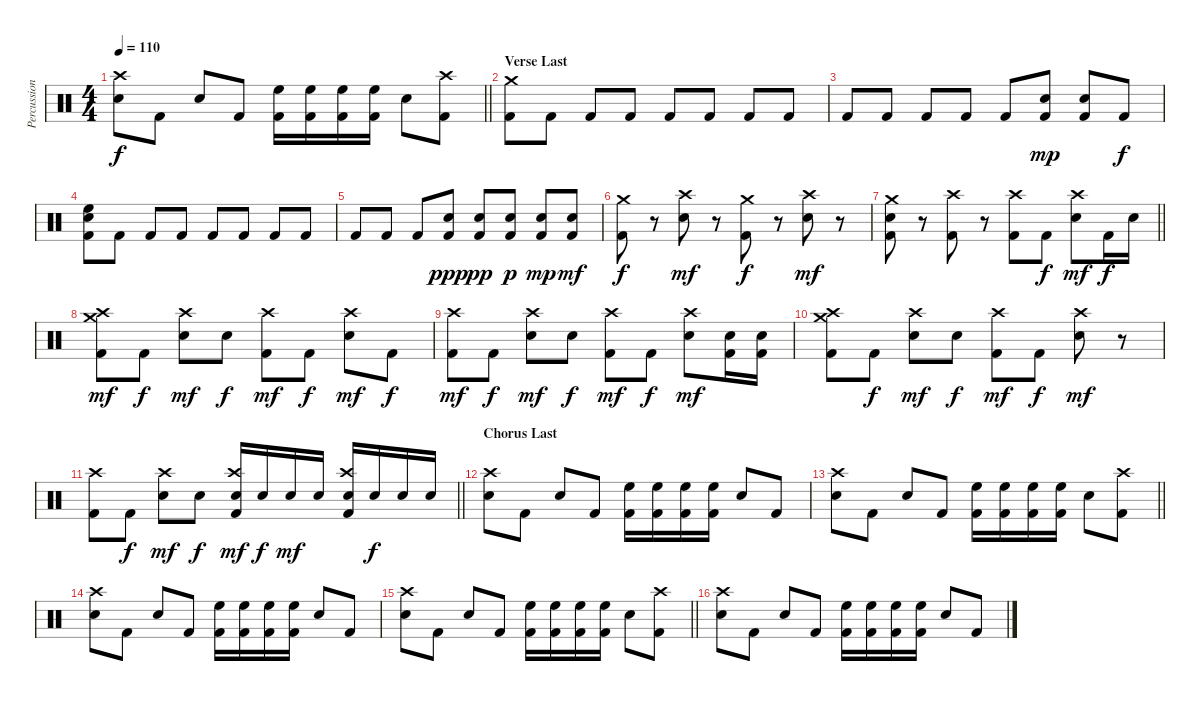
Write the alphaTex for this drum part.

\track ("Percussion" "Percussion") {instrument percussion}
\staff {score}
\articulation defaults
\ts (4 4)
\tempo 110
\clef neutral
\barLineRight lightlight
\ks c
("Electric Snare (hit)" "Crash high (hit)").8{dy f} "Kick (hit) 2".8 "Electric Snare (hit)".8 "Kick (hit) 2".8 ("Kick (hit) 2" "High Floor Tom (hit)").16 ("Kick (hit) 2" "High Floor Tom (hit)").16 ("Kick (hit) 2" "High Floor Tom (hit)").16 ("Kick (hit) 2" "High Floor Tom (hit)").16 "Electric Snare (hit)".8 ("Kick (hit) 2" "Crash high (hit)").8 |
\section ("" "Verse Last")
("Kick (hit) 2" "Crash medium (hit)").8 "Kick (hit) 2".8 "Kick (hit) 2".8 "Kick (hit) 2".8 "Kick (hit) 2".8 "Kick (hit) 2".8 "Kick (hit) 2".8 "Kick (hit) 2".8 |
"Kick (hit) 2".8 "Kick (hit) 2".8 "Kick (hit) 2".8 "Kick (hit) 2".8 "Kick (hit) 2".8 ("Kick (hit) 2" "Electric Snare (hit)").8{dy mp} ("Kick (hit) 2" "Electric Snare (hit)").8 "Kick (hit) 2".8{dy f} |
("Kick (hit) 2" "Electric Snare (hit)" "High Floor Tom (hit)").8 "Kick (hit) 2".8 "Kick (hit) 2".8 "Kick (hit) 2".8 "Kick (hit) 2".8 "Kick (hit) 2".8 "Kick (hit) 2".8 "Kick (hit) 2".8 |
"Kick (hit) 2".8 "Kick (hit) 2".8 "Kick (hit) 2".8 ("Kick (hit) 2" "Electric Snare (hit)").8{dy ppp} ("Kick (hit) 2" "Electric Snare (hit)").8{dy pp} ("Kick (hit) 2" "Electric Snare (hit)").8{dy p} ("Kick (hit) 2" "Electric Snare (hit)").8{dy mp} ("Kick (hit) 2" "Electric Snare (hit)").8{dy mf} |
("Kick (hit) 2" "Crash medium (hit)").8{dy f} r.8 ("Electric Snare (hit)" "Crash high (hit)").8{dy mf} r.8 ("Kick (hit) 2" "Crash medium (hit)").8{dy f} r.8 ("Electric Snare (hit)" "Crash high (hit)").8{dy mf} r.8 |
\barLineRight lightlight
("Kick (hit) 2" "Electric Snare (hit)" "Crash medium (hit)").8 r.8 ("Kick (hit) 2" "Crash high (hit)").8 r.8 ("Kick (hit) 2" "Crash high (hit)").8 "Kick (hit) 2".8{dy f} ("Electric Snare (hit)" "Crash high (hit)").8{dy mf} "Kick (hit) 2".16{dy f} "Electric Snare (hit)".16 |
("Kick (hit) 2" "Crash high (hit)" "Crash medium (hit)").8{dy mf} "Kick (hit) 2".8{dy f} ("Electric Snare (hit)" "Crash high (hit)").8{dy mf} "Electric Snare (hit)".8{dy f} ("Kick (hit) 2" "Crash high (hit)").8{dy mf} "Kick (hit) 2".8{dy f} ("Electric Snare (hit)" "Crash high (hit)").8{dy mf} "Kick (hit) 2".8{dy f} |
("Kick (hit) 2" "Crash high (hit)").8{dy mf} "Kick (hit) 2".8{dy f} ("Electric Snare (hit)" "Crash high (hit)").8{dy mf} "Electric Snare (hit)".8{dy f} ("Kick (hit) 2" "Crash high (hit)").8{dy mf} "Kick (hit) 2".8{dy f} ("Electric Snare (hit)" "Crash high (hit)").8{dy mf} ("Kick (hit) 2" "Electric Snare (hit)").16 ("Kick (hit) 2" "Electric Snare (hit)").16 |
("Kick (hit) 2" "Crash high (hit)" "Crash medium (hit)").8 "Kick (hit) 2".8{dy f} ("Electric Snare (hit)" "Crash high (hit)").8{dy mf} "Electric Snare (hit)".8{dy f} ("Kick (hit) 2" "Crash high (hit)").8{dy mf} "Kick (hit) 2".8{dy f} ("Electric Snare (hit)" "Crash high (hit)").8{dy mf} r.8 |
\barLineRight lightlight
("Kick (hit) 2" "Crash high (hit)").8 "Kick (hit) 2".8{dy f} ("Electric Snare (hit)" "Crash high (hit)").8{dy mf} "Electric Snare (hit)".8{dy f} ("Kick (hit) 2" "Electric Snare (hit)" "Crash high (hit)").16{dy mf} "Electric Snare (hit)".16{dy f} "Electric Snare (hit)".16{dy mf} "Electric Snare (hit)".16 ("Kick (hit) 2" "Electric Snare (hit)" "Crash high (hit)").16 "Electric Snare (hit)".16{dy f} "Electric Snare (hit)".16 "Electric Snare (hit)".16 |
\section ("" "Chorus Last")
("Electric Snare (hit)" "Crash high (hit)").8 "Kick (hit) 2".8 "Electric Snare (hit)".8 "Kick (hit) 2".8 ("Kick (hit) 2" "High Floor Tom (hit)").16 ("Kick (hit) 2" "High Floor Tom (hit)").16 ("Kick (hit) 2" "High Floor Tom (hit)").16 ("Kick (hit) 2" "High Floor Tom (hit)").16 "Electric Snare (hit)".8 "Kick (hit) 2".8 |
\barLineRight lightlight
("Electric Snare (hit)" "Crash high (hit)").8 "Kick (hit) 2".8 "Electric Snare (hit)".8 "Kick (hit) 2".8 ("Kick (hit) 2" "High Floor Tom (hit)").16 ("Kick (hit) 2" "High Floor Tom (hit)").16 ("Kick (hit) 2" "High Floor Tom (hit)").16 ("Kick (hit) 2" "High Floor Tom (hit)").16 "Electric Snare (hit)".8 ("Kick (hit) 2" "Crash high (hit)").8 |
("Electric Snare (hit)" "Crash high (hit)").8 "Kick (hit) 2".8 "Electric Snare (hit)".8 "Kick (hit) 2".8 ("Kick (hit) 2" "High Floor Tom (hit)").16 ("Kick (hit) 2" "High Floor Tom (hit)").16 ("Kick (hit) 2" "High Floor Tom (hit)").16 ("Kick (hit) 2" "High Floor Tom (hit)").16 "Electric Snare (hit)".8 "Kick (hit) 2".8 |
\barLineRight lightlight
("Electric Snare (hit)" "Crash high (hit)").8 "Kick (hit) 2".8 "Electric Snare (hit)".8 "Kick (hit) 2".8 ("Kick (hit) 2" "High Floor Tom (hit)").16 ("Kick (hit) 2" "High Floor Tom (hit)").16 ("Kick (hit) 2" "High Floor Tom (hit)").16 ("Kick (hit) 2" "High Floor Tom (hit)").16 "Electric Snare (hit)".8 ("Kick (hit) 2" "Crash high (hit)").8 |
("Electric Snare (hit)" "Crash high (hit)").8 "Kick (hit) 2".8 "Electric Snare (hit)".8 "Kick (hit) 2".8 ("Kick (hit) 2" "High Floor Tom (hit)").16 ("Kick (hit) 2" "High Floor Tom (hit)").16 ("Kick (hit) 2" "High Floor Tom (hit)").16 ("Kick (hit) 2" "High Floor Tom (hit)").16 "Electric Snare (hit)".8 "Kick (hit) 2".8
